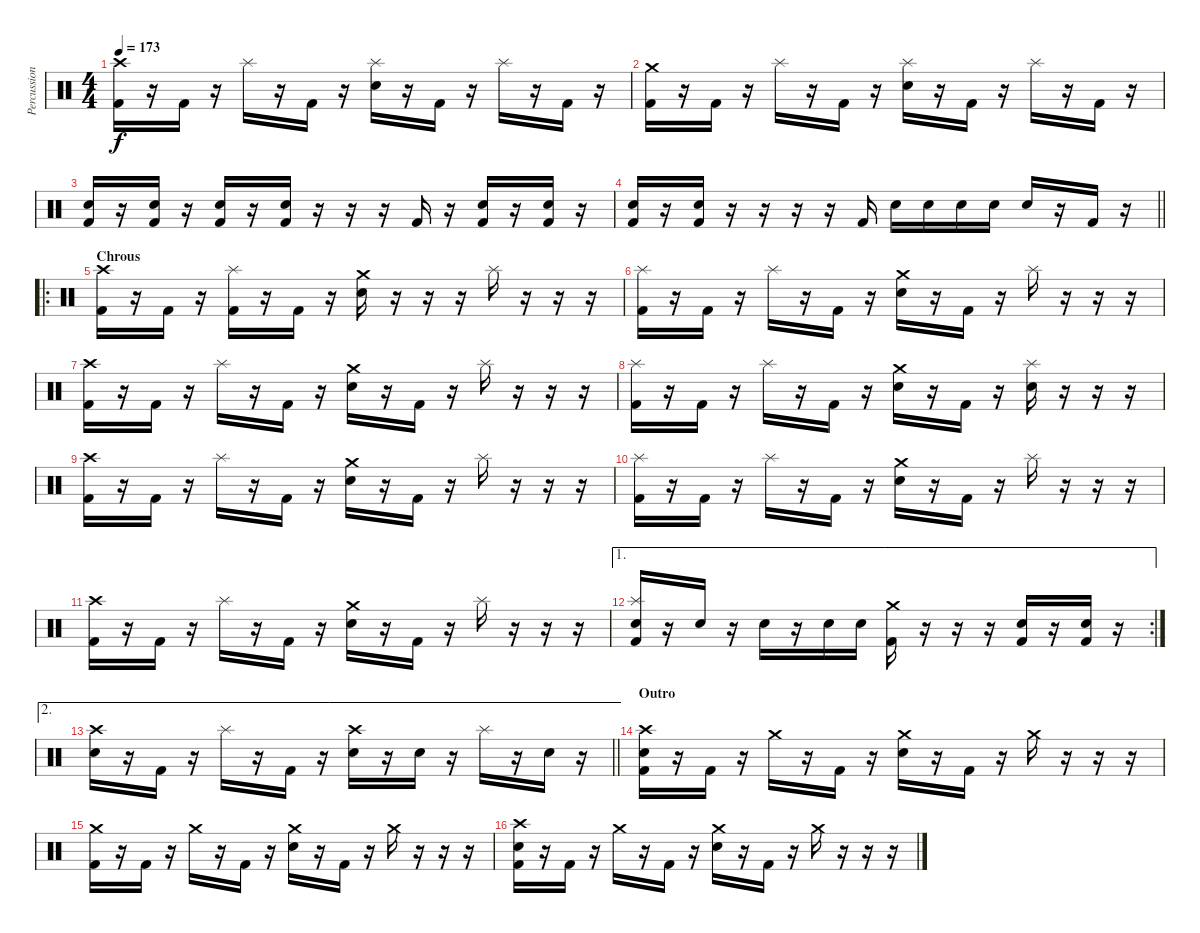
\track ("Percussion" "Percussion") {instrument percussion}
\staff {score}
\articulation defaults
\ts (4 4)
\tempo 173
\clef neutral
\ks c
("Crash high (hit)" "Kick (hit) 2").16{dy f} r.16 "Kick (hit) 2".16 r.16 "Splash (hit)".16 r.16 "Kick (hit) 2".16 r.16 ("Splash (hit)" "Electric Snare (hit)").16 r.16 "Kick (hit) 2".16 r.16 "Splash (hit)".16 r.16 "Kick (hit) 2".16 r.16 |
("Crash medium (hit)" "Kick (hit) 2").16 r.16 "Kick (hit) 2".16 r.16 "Splash (hit)".16 r.16 "Kick (hit) 2".16 r.16 ("Splash (hit)" "Electric Snare (hit)").16 r.16 "Kick (hit) 2".16 r.16 "Splash (hit)".16 r.16 "Kick (hit) 2".16 r.16 |
("Electric Snare (hit)" "Kick (hit) 2").16 r.16 ("Electric Snare (hit)" "Kick (hit) 2").16 r.16 ("Electric Snare (hit)" "Kick (hit) 2").16 r.16 ("Electric Snare (hit)" "Kick (hit) 2").16 r.16 r.16 r.16 "Kick (hit) 2".16 r.16 ("Electric Snare (hit)" "Kick (hit) 2").16 r.16 ("Electric Snare (hit)" "Kick (hit) 2").16 r.16 |
\barLineRight lightlight
("Electric Snare (hit)" "Kick (hit) 2").16 r.16 ("Electric Snare (hit)" "Kick (hit) 2").16 r.16 r.16 r.16 r.16 "Kick (hit) 2".16 "Electric Snare (hit)".16 "Electric Snare (hit)".16 "Electric Snare (hit)".16 "Electric Snare (hit)".16 "Electric Snare (hit)".16 r.16 "Kick (hit) 2".16 r.16 |
\ro
\section ("" "Chrous")
("Crash high (hit)" "Kick (hit) 2").16 r.16 "Kick (hit) 2".16 r.16 ("Splash (hit)" "Kick (hit) 2").16 r.16 "Kick (hit) 2".16 r.16 ("Crash medium (hit)" "Electric Snare (hit)").16 r.16 r.16 r.16 "Splash (hit)".16 r.16 r.16 r.16 |
("Splash (hit)" "Kick (hit) 2").16 r.16 "Kick (hit) 2".16 r.16 "Splash (hit)".16 r.16 "Kick (hit) 2".16 r.16 ("Crash medium (hit)" "Electric Snare (hit)").16 r.16 "Kick (hit) 2".16 r.16 "Splash (hit)".16 r.16 r.16 r.16 |
("Crash high (hit)" "Kick (hit) 2").16 r.16 "Kick (hit) 2".16 r.16 "Splash (hit)".16 r.16 "Kick (hit) 2".16 r.16 ("Crash medium (hit)" "Electric Snare (hit)").16 r.16 "Kick (hit) 2".16 r.16 "Splash (hit)".16 r.16 r.16 r.16 |
("Splash (hit)" "Kick (hit) 2").16 r.16 "Kick (hit) 2".16 r.16 "Splash (hit)".16 r.16 "Kick (hit) 2".16 r.16 ("Crash medium (hit)" "Electric Snare (hit)").16 r.16 "Kick (hit) 2".16 r.16 ("Splash (hit)" "Electric Snare (hit)").16 r.16 r.16 r.16 |
("Crash high (hit)" "Kick (hit) 2").16 r.16 "Kick (hit) 2".16 r.16 "Splash (hit)".16 r.16 "Kick (hit) 2".16 r.16 ("Crash medium (hit)" "Electric Snare (hit)").16 r.16 "Kick (hit) 2".16 r.16 "Splash (hit)".16 r.16 r.16 r.16 |
("Splash (hit)" "Kick (hit) 2").16 r.16 "Kick (hit) 2".16 r.16 "Splash (hit)".16 r.16 "Kick (hit) 2".16 r.16 ("Crash medium (hit)" "Electric Snare (hit)").16 r.16 "Kick (hit) 2".16 r.16 "Splash (hit)".16 r.16 r.16 r.16 |
("Crash high (hit)" "Kick (hit) 2").16 r.16 "Kick (hit) 2".16 r.16 "Splash (hit)".16 r.16 "Kick (hit) 2".16 r.16 ("Crash medium (hit)" "Electric Snare (hit)").16 r.16 "Kick (hit) 2".16 r.16 "Splash (hit)".16 r.16 r.16 r.16 |
\ae 1
\rc 2
("Splash (hit)" "Electric Snare (hit)" "Kick (hit) 2").16 r.16 "Electric Snare (hit)".16 r.16 "Electric Snare (hit)".16 r.16 "Electric Snare (hit)".16 "Electric Snare (hit)".16 ("Crash medium (hit)" "Kick (hit) 2").16 r.16 r.16 r.16 ("Electric Snare (hit)" "Kick (hit) 2").16 r.16 ("Electric Snare (hit)" "Kick (hit) 2").16 r.16 |
\ae 2
\barLineRight lightlight
("Crash high (hit)" "Electric Snare (hit)").16 r.16 "Kick (hit) 2".16 r.16 "Splash (hit)".16 r.16 "Kick (hit) 2".16 r.16 ("Crash high (hit)" "Electric Snare (hit)").16 r.16 "Electric Snare (hit)".16 r.16 "Splash (hit)".16 r.16 "Electric Snare (hit)".16 r.16 |
\section ("" "Outro")
("Crash high (hit)" "Electric Snare (hit)" "Kick (hit) 2").16 r.16 "Kick (hit) 2".16 r.16 "Crash medium (hit)".16 r.16 "Kick (hit) 2".16 r.16 ("Crash medium (hit)" "Electric Snare (hit)").16 r.16 "Kick (hit) 2".16 r.16 "Crash medium (hit)".16 r.16 r.16 r.16 |
("Crash medium (hit)" "Kick (hit) 2").16 r.16 "Kick (hit) 2".16 r.16 "Crash medium (hit)".16 r.16 "Kick (hit) 2".16 r.16 ("Crash medium (hit)" "Electric Snare (hit)").16 r.16 "Kick (hit) 2".16 r.16 "Crash medium (hit)".16 r.16 r.16 r.16 |
("Crash high (hit)" "Electric Snare (hit)" "Kick (hit) 2").16 r.16 "Kick (hit) 2".16 r.16 "Crash medium (hit)".16 r.16 "Kick (hit) 2".16 r.16 ("Crash medium (hit)" "Electric Snare (hit)").16 r.16 "Kick (hit) 2".16 r.16 "Crash medium (hit)".16 r.16 r.16 r.16
